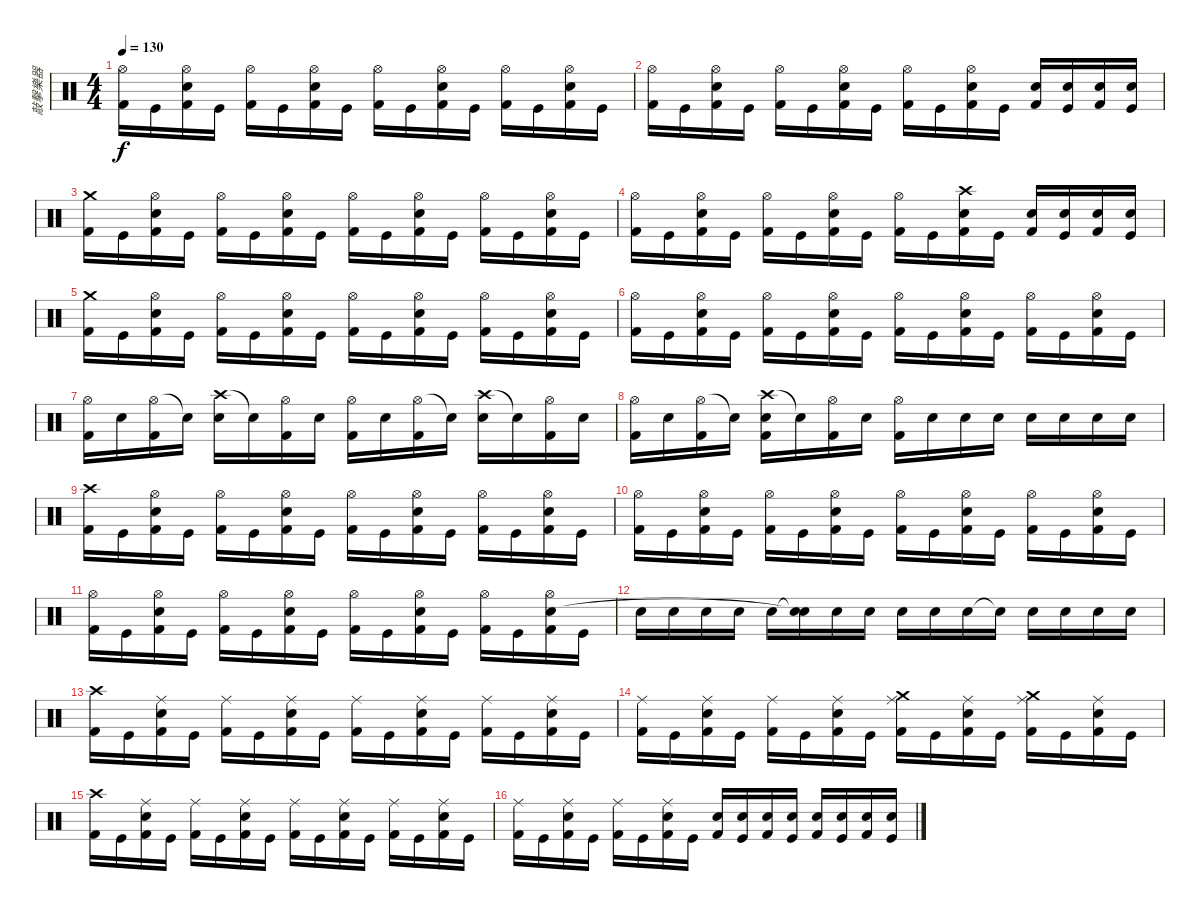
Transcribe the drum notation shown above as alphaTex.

\track ("敲擊樂器" "敲擊樂器") {instrument percussion}
\staff {score}
\articulation defaults
\ts (4 4)
\tempo 130
\clef neutral
\ks c
("Hi-Hat (open)" "Kick (hit) 2").16{dy f} "Kick (hit)".16 ("Hi-Hat (open)" "Snare (hit) 2" "Kick (hit) 2").16 "Kick (hit)".16 ("Hi-Hat (open)" "Kick (hit) 2").16 "Kick (hit)".16 ("Hi-Hat (open)" "Snare (hit) 2" "Kick (hit) 2").16 "Kick (hit)".16 ("Hi-Hat (open)" "Kick (hit) 2").16 "Kick (hit)".16 ("Hi-Hat (open)" "Snare (hit) 2" "Kick (hit) 2").16 "Kick (hit)".16 ("Hi-Hat (open)" "Kick (hit) 2").16 "Kick (hit)".16 ("Hi-Hat (open)" "Snare (hit) 2" "Kick (hit) 2").16 "Kick (hit)".16 |
("Hi-Hat (open)" "Kick (hit) 2").16 "Kick (hit)".16 ("Hi-Hat (open)" "Snare (hit) 2" "Kick (hit) 2").16 "Kick (hit)".16 ("Hi-Hat (open)" "Kick (hit) 2").16 "Kick (hit)".16 ("Hi-Hat (open)" "Snare (hit) 2" "Kick (hit) 2").16 "Kick (hit)".16 ("Hi-Hat (open)" "Kick (hit) 2").16 "Kick (hit)".16 ("Hi-Hat (open)" "Snare (hit) 2" "Kick (hit) 2").16 "Kick (hit)".16 ("Snare (hit) 2" "Kick (hit) 2").16 ("Snare (hit) 2" "Kick (hit)").16 ("Snare (hit) 2" "Kick (hit) 2").16 ("Snare (hit) 2" "Kick (hit)").16 |
("Crash medium (hit)" "Kick (hit) 2").16 "Kick (hit)".16 ("Hi-Hat (open)" "Snare (hit) 2" "Kick (hit) 2").16 "Kick (hit)".16 ("Hi-Hat (open)" "Kick (hit) 2").16 "Kick (hit)".16 ("Hi-Hat (open)" "Snare (hit) 2" "Kick (hit) 2").16 "Kick (hit)".16 ("Hi-Hat (open)" "Kick (hit) 2").16 "Kick (hit)".16 ("Hi-Hat (open)" "Snare (hit) 2" "Kick (hit) 2").16 "Kick (hit)".16 ("Hi-Hat (open)" "Kick (hit) 2").16 "Kick (hit)".16 ("Hi-Hat (open)" "Snare (hit) 2" "Kick (hit) 2").16 "Kick (hit)".16 |
("Hi-Hat (open)" "Kick (hit) 2").16 "Kick (hit)".16 ("Hi-Hat (open)" "Snare (hit) 2" "Kick (hit) 2").16 "Kick (hit)".16 ("Hi-Hat (open)" "Kick (hit) 2").16 "Kick (hit)".16 ("Hi-Hat (open)" "Snare (hit) 2" "Kick (hit) 2").16 "Kick (hit)".16 ("Hi-Hat (open)" "Kick (hit) 2").16 "Kick (hit)".16 ("Crash high (hit)" "Snare (hit) 2" "Kick (hit) 2").16 "Kick (hit)".16 ("Snare (hit) 2" "Kick (hit) 2").16 ("Snare (hit) 2" "Kick (hit)").16 ("Snare (hit) 2" "Kick (hit) 2").16 ("Snare (hit) 2" "Kick (hit)").16 |
("Crash medium (hit)" "Kick (hit) 2").16 "Kick (hit)".16 ("Hi-Hat (open)" "Snare (hit) 2" "Kick (hit) 2").16 "Kick (hit)".16 ("Hi-Hat (open)" "Kick (hit) 2").16 "Kick (hit)".16 ("Hi-Hat (open)" "Snare (hit) 2" "Kick (hit) 2").16 "Kick (hit)".16 ("Hi-Hat (open)" "Kick (hit) 2").16 "Kick (hit)".16 ("Hi-Hat (open)" "Snare (hit) 2" "Kick (hit) 2").16 "Kick (hit)".16 ("Hi-Hat (open)" "Kick (hit) 2").16 "Kick (hit)".16 ("Hi-Hat (open)" "Snare (hit) 2" "Kick (hit) 2").16 "Kick (hit)".16 |
("Hi-Hat (open)" "Kick (hit) 2").16 "Kick (hit)".16 ("Hi-Hat (open)" "Snare (hit) 2" "Kick (hit) 2").16 "Kick (hit)".16 ("Hi-Hat (open)" "Kick (hit) 2").16 "Kick (hit)".16 ("Hi-Hat (open)" "Snare (hit) 2" "Kick (hit) 2").16 "Kick (hit)".16 ("Hi-Hat (open)" "Kick (hit) 2").16 "Kick (hit)".16 ("Hi-Hat (open)" "Snare (hit) 2" "Kick (hit) 2").16 "Kick (hit)".16 ("Hi-Hat (open)" "Kick (hit) 2").16 "Kick (hit)".16 ("Hi-Hat (open)" "Snare (hit) 2" "Kick (hit) 2").16 "Kick (hit)".16 |
("Hi-Hat (open)" "Kick (hit) 2").16 "Snare (hit) 2".16 ("Hi-Hat (open)" "Kick (hit) 2").16 "Snare (hit) 2"{t}.16 ("Crash high (hit)" "Snare (hit) 2").16 "Snare (hit)"{t}.16 ("Hi-Hat (open)" "Kick (hit) 2").16 "Snare (hit) 2".16 ("Hi-Hat (open)" "Kick (hit) 2").16 "Snare (hit) 2".16 ("Hi-Hat (open)" "Kick (hit) 2").16 "Snare (hit) 2"{t}.16 ("Crash high (hit)" "Snare (hit) 2").16 "Snare (hit)"{t}.16 ("Hi-Hat (open)" "Kick (hit) 2").16 "Snare (hit) 2".16 |
("Hi-Hat (open)" "Kick (hit) 2").16 "Snare (hit) 2".16 ("Hi-Hat (open)" "Kick (hit) 2").16 "Snare (hit)"{t}.16 ("Crash high (hit)" "Snare (hit) 2" "Kick (hit) 2").16 "Snare (hit)"{t}.16 ("Hi-Hat (open)" "Kick (hit) 2").16 "Snare (hit) 2".16 ("Hi-Hat (open)" "Kick (hit) 2").16 "Snare (hit) 2".16 "Snare (hit) 2".16 "Snare (hit) 2".16 "Snare (hit) 2".16 "Snare (hit) 2".16 "Snare (hit) 2".16 "Snare (hit) 2".16 |
("Crash high (hit)" "Kick (hit) 2").16 "Kick (hit)".16 ("Hi-Hat (open)" "Snare (hit) 2" "Kick (hit) 2").16 "Kick (hit)".16 ("Hi-Hat (open)" "Kick (hit) 2").16 "Kick (hit)".16 ("Hi-Hat (open)" "Snare (hit) 2" "Kick (hit) 2").16 "Kick (hit)".16 ("Hi-Hat (open)" "Kick (hit) 2").16 "Kick (hit)".16 ("Hi-Hat (open)" "Snare (hit) 2" "Kick (hit) 2").16 "Kick (hit)".16 ("Hi-Hat (open)" "Kick (hit) 2").16 "Kick (hit)".16 ("Hi-Hat (open)" "Snare (hit) 2" "Kick (hit) 2").16 "Kick (hit)".16 |
("Hi-Hat (open)" "Kick (hit) 2").16 "Kick (hit)".16 ("Hi-Hat (open)" "Snare (hit) 2" "Kick (hit) 2").16 "Kick (hit)".16 ("Hi-Hat (open)" "Kick (hit) 2").16 "Kick (hit)".16 ("Hi-Hat (open)" "Snare (hit) 2" "Kick (hit) 2").16 "Kick (hit)".16 ("Hi-Hat (open)" "Kick (hit) 2").16 "Kick (hit)".16 ("Hi-Hat (open)" "Snare (hit) 2" "Kick (hit) 2").16 "Kick (hit)".16 ("Hi-Hat (open)" "Kick (hit) 2").16 "Kick (hit)".16 ("Hi-Hat (open)" "Snare (hit) 2" "Kick (hit) 2").16 "Kick (hit)".16 |
("Hi-Hat (open)" "Kick (hit) 2").16 "Kick (hit)".16 ("Hi-Hat (open)" "Snare (hit) 2" "Kick (hit) 2").16 "Kick (hit)".16 ("Hi-Hat (open)" "Kick (hit) 2").16 "Kick (hit)".16 ("Hi-Hat (open)" "Snare (hit) 2" "Kick (hit) 2").16 "Kick (hit)".16 ("Hi-Hat (open)" "Kick (hit) 2").16 "Kick (hit)".16 ("Hi-Hat (open)" "Snare (hit) 2" "Kick (hit) 2").16 "Kick (hit)".16 ("Hi-Hat (open)" "Kick (hit) 2").16 "Kick (hit)".16 ("Hi-Hat (open)" "Snare (hit) 2" "Kick (hit) 2").16 "Kick (hit)".16 |
"Snare (hit) 2".16 "Snare (hit) 2".16 "Snare (hit) 2".16 "Snare (hit) 2".16 "Snare (hit) 2".16 ("Snare (hit)"{t} "Snare (hit)"{t}).16 "Snare (hit) 2".16 "Snare (hit) 2".16 "Snare (hit) 2".16 "Snare (hit) 2".16 "Snare (hit) 2".16 "Snare (hit)"{t}.16 "Snare (hit) 2".16 "Snare (hit) 2".16 "Snare (hit) 2".16 "Snare (hit) 2".16 |
("Crash high (hit)" "Kick (hit) 2").16 "Kick (hit)".16 ("Ride (middle)" "Snare (hit) 2" "Kick (hit) 2").16 "Kick (hit)".16 ("Ride (middle)" "Kick (hit) 2").16 "Kick (hit)".16 ("Ride (middle)" "Snare (hit) 2" "Kick (hit) 2").16 "Kick (hit)".16 ("Ride (middle)" "Kick (hit) 2").16 "Kick (hit)".16 ("Ride (middle)" "Snare (hit) 2" "Kick (hit) 2").16 "Kick (hit)".16 ("Ride (middle)" "Kick (hit) 2").16 "Kick (hit)".16 ("Ride (middle)" "Snare (hit) 2" "Kick (hit) 2").16 "Kick (hit)".16 |
("Ride (middle)" "Kick (hit) 2").16 "Kick (hit)".16 ("Ride (middle)" "Snare (hit) 2" "Kick (hit) 2").16 "Kick (hit)".16 ("Ride (middle)" "Kick (hit) 2").16 "Kick (hit)".16 ("Ride (middle)" "Snare (hit) 2" "Kick (hit) 2").16 "Kick (hit)".16 ("Ride (middle)" "Crash medium (hit)" "Kick (hit) 2").16 "Kick (hit)".16 ("Ride (middle)" "Snare (hit) 2" "Kick (hit) 2").16 "Kick (hit)".16 ("Ride (middle)" "Crash medium (hit)" "Kick (hit) 2").16 "Kick (hit)".16 ("Ride (middle)" "Snare (hit) 2" "Kick (hit) 2").16 "Kick (hit)".16 |
("Crash high (hit)" "Kick (hit) 2").16 "Kick (hit)".16 ("Ride (middle)" "Snare (hit) 2" "Kick (hit) 2").16 "Kick (hit)".16 ("Ride (middle)" "Kick (hit) 2").16 "Kick (hit)".16 ("Ride (middle)" "Snare (hit) 2" "Kick (hit) 2").16 "Kick (hit)".16 ("Ride (middle)" "Kick (hit) 2").16 "Kick (hit)".16 ("Ride (middle)" "Snare (hit) 2" "Kick (hit) 2").16 "Kick (hit)".16 ("Ride (middle)" "Kick (hit) 2").16 "Kick (hit)".16 ("Ride (middle)" "Snare (hit) 2" "Kick (hit) 2").16 "Kick (hit)".16 |
("Ride (middle)" "Kick (hit) 2").16 "Kick (hit)".16 ("Ride (middle)" "Snare (hit) 2" "Kick (hit) 2").16 "Kick (hit)".16 ("Ride (middle)" "Kick (hit) 2").16 "Kick (hit)".16 ("Ride (middle)" "Snare (hit) 2" "Kick (hit) 2").16 "Kick (hit)".16 ("Snare (hit) 2" "Kick (hit) 2").16 ("Snare (hit) 2" "Kick (hit)").16 ("Snare (hit) 2" "Kick (hit) 2").16 ("Snare (hit) 2" "Kick (hit)").16 ("Snare (hit) 2" "Kick (hit) 2").16 ("Snare (hit) 2" "Kick (hit)").16 ("Snare (hit) 2" "Kick (hit) 2").16 ("Snare (hit) 2" "Kick (hit)").16
